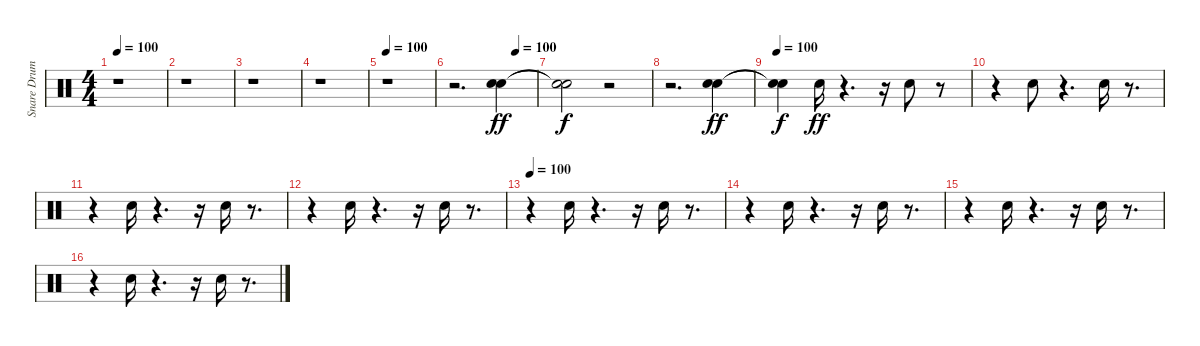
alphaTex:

\track ("Snare Drums" "Snare Drum") {instrument percussion}
\staff {score}
\articulation defaults
\ts (4 4)
\tempo 100
\clef neutral
\ks c
r.1{dy ff} |
r.1 |
r.1 |
r.1 |
\tempo 100
r.1 |
\tempo (100 0.75)
r.2{d} ("Electric Snare (hit)" "Snare (hit) 2").4 |
("Snare (hit)"{t} "Snare (hit)"{t}).2{dy f} r.2 |
r.2{d} ("Electric Snare (hit)" "Snare (hit) 2").4{dy ff} |
\tempo 100
("Snare (hit)"{t} "Snare (hit)"{t}).4{dy f} "Snare (hit) 2".16{dy ff} r.4{d} r.16 "Snare (hit) 2".8 r.8 |
r.4 "Snare (hit) 2".8 r.4{d} "Snare (hit) 2".16 r.8{d} |
r.4 "Snare (hit) 2".16 r.4{d} r.16 "Snare (hit) 2".16 r.8{d} |
r.4 "Snare (hit) 2".16 r.4{d} r.16 "Snare (hit) 2".16 r.8{d} |
\tempo 100
r.4 "Snare (hit) 2".16 r.4{d} r.16 "Snare (hit) 2".16 r.8{d} |
r.4 "Snare (hit) 2".16 r.4{d} r.16 "Snare (hit) 2".16 r.8{d} |
r.4 "Snare (hit) 2".16 r.4{d} r.16 "Snare (hit) 2".16 r.8{d} |
r.4 "Snare (hit) 2".16 r.4{d} r.16 "Snare (hit) 2".16 r.8{d}
